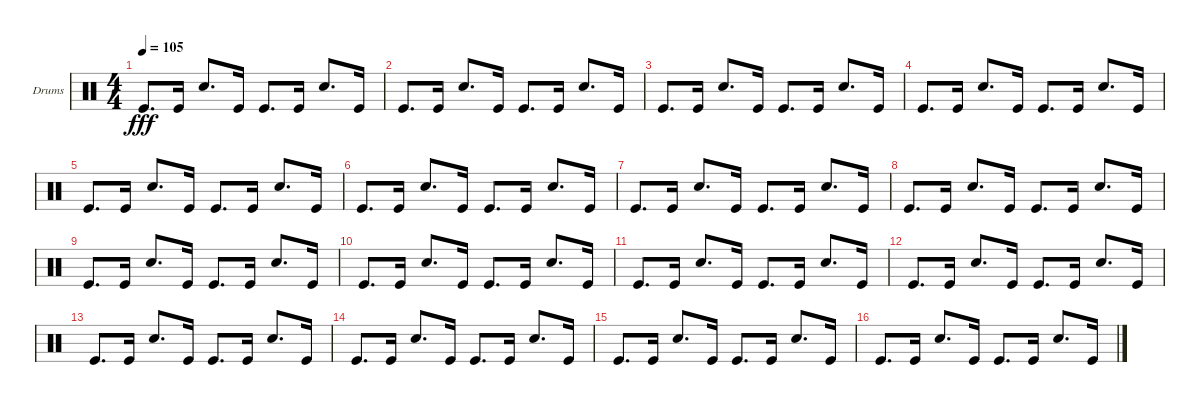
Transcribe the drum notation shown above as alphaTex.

\defaultSystemsLayout 4
\bracketExtendMode groupsimilarinstruments
\firstSystemTrackNameOrientation horizontal
\otherSystemsTrackNameOrientation horizontal
\track ("Helders" "Drums") {instrument percussion}
\staff {score}
\articulation defaults
\ts (4 4)
\tempo 105
\clef neutral
\ks c "Kick (hit)".8{d dy fff} "Kick (hit)".16 "Snare (hit) 2".8{d} "Kick (hit)".16 "Kick (hit)".8{d} "Kick (hit)".16 "Snare (hit) 2".8{d} "Kick (hit)".16
|
"Kick (hit)".8{d} "Kick (hit)".16 "Snare (hit) 2".8{d} "Kick (hit)".16 "Kick (hit)".8{d} "Kick (hit)".16 "Snare (hit) 2".8{d} "Kick (hit)".16 |
"Kick (hit)".8{d} "Kick (hit)".16 "Snare (hit) 2".8{d} "Kick (hit)".16 "Kick (hit)".8{d} "Kick (hit)".16 "Snare (hit) 2".8{d} "Kick (hit)".16 |
"Kick (hit)".8{d} "Kick (hit)".16 "Snare (hit) 2".8{d} "Kick (hit)".16 "Kick (hit)".8{d} "Kick (hit)".16 "Snare (hit) 2".8{d} "Kick (hit)".16 |
"Kick (hit)".8{d} "Kick (hit)".16 "Snare (hit) 2".8{d} "Kick (hit)".16 "Kick (hit)".8{d} "Kick (hit)".16 "Snare (hit) 2".8{d} "Kick (hit)".16 |
"Kick (hit)".8{d} "Kick (hit)".16 "Snare (hit) 2".8{d} "Kick (hit)".16 "Kick (hit)".8{d} "Kick (hit)".16 "Snare (hit) 2".8{d} "Kick (hit)".16 |
"Kick (hit)".8{d} "Kick (hit)".16 "Snare (hit) 2".8{d} "Kick (hit)".16 "Kick (hit)".8{d} "Kick (hit)".16 "Snare (hit) 2".8{d} "Kick (hit)".16 |
"Kick (hit)".8{d} "Kick (hit)".16 "Snare (hit) 2".8{d} "Kick (hit)".16 "Kick (hit)".8{d} "Kick (hit)".16 "Snare (hit) 2".8{d} "Kick (hit)".16 |
"Kick (hit)".8{d} "Kick (hit)".16 "Snare (hit) 2".8{d} "Kick (hit)".16 "Kick (hit)".8{d} "Kick (hit)".16 "Snare (hit) 2".8{d} "Kick (hit)".16 |
"Kick (hit)".8{d} "Kick (hit)".16 "Snare (hit) 2".8{d} "Kick (hit)".16 "Kick (hit)".8{d} "Kick (hit)".16 "Snare (hit) 2".8{d} "Kick (hit)".16 |
"Kick (hit)".8{d} "Kick (hit)".16 "Snare (hit) 2".8{d} "Kick (hit)".16 "Kick (hit)".8{d} "Kick (hit)".16 "Snare (hit) 2".8{d} "Kick (hit)".16 |
"Kick (hit)".8{d} "Kick (hit)".16 "Snare (hit) 2".8{d} "Kick (hit)".16 "Kick (hit)".8{d} "Kick (hit)".16 "Snare (hit) 2".8{d} "Kick (hit)".16 |
"Kick (hit)".8{d} "Kick (hit)".16 "Snare (hit) 2".8{d} "Kick (hit)".16 "Kick (hit)".8{d} "Kick (hit)".16 "Snare (hit) 2".8{d} "Kick (hit)".16 |
"Kick (hit)".8{d} "Kick (hit)".16 "Snare (hit) 2".8{d} "Kick (hit)".16 "Kick (hit)".8{d} "Kick (hit)".16 "Snare (hit) 2".8{d} "Kick (hit)".16 |
"Kick (hit)".8{d} "Kick (hit)".16 "Snare (hit) 2".8{d} "Kick (hit)".16 "Kick (hit)".8{d} "Kick (hit)".16 "Snare (hit) 2".8{d} "Kick (hit)".16 |
"Kick (hit)".8{d} "Kick (hit)".16 "Snare (hit) 2".8{d} "Kick (hit)".16 "Kick (hit)".8{d} "Kick (hit)".16 "Snare (hit) 2".8{d} "Kick (hit)".16
